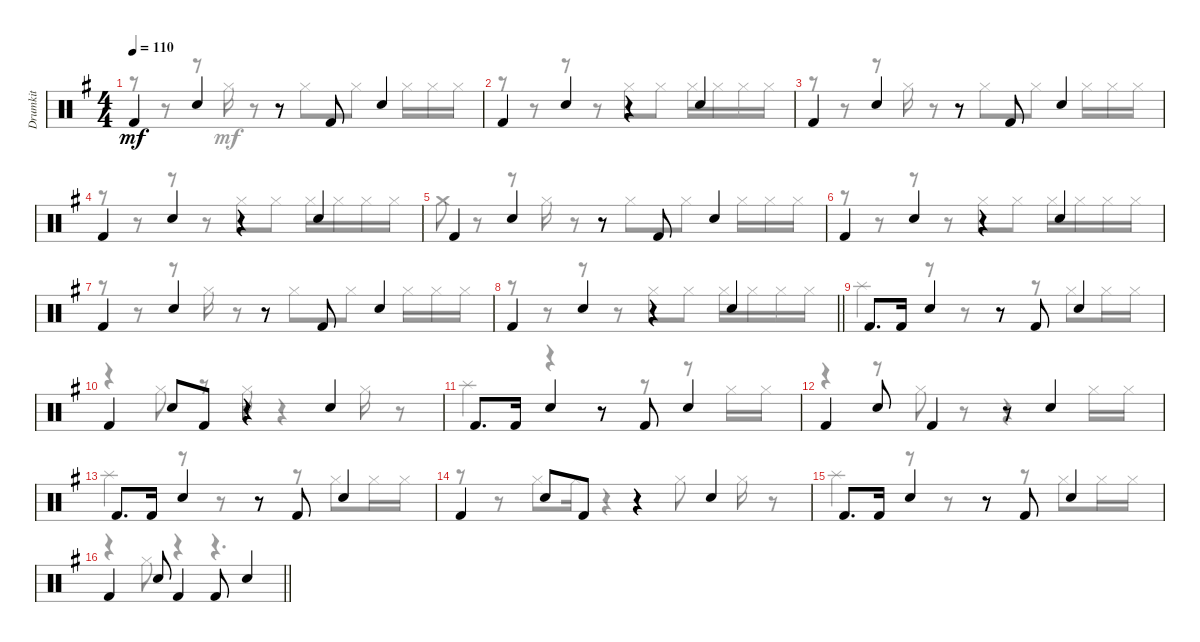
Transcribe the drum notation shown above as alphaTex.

\track ("Drumkit" "Drumkit") {instrument percussion}
\staff {score}
\articulation defaults
\voice
\ts (4 4)
\tempo 110
\clef neutral
\ks g "Kick (hit) 2".4{dy mf} "Snare (hit) 2".4
r.8 "Kick (hit) 2".8 "Snare (hit) 2".4 |
"Kick (hit) 2".4 "Snare (hit) 2".4 r.4 "Snare (hit) 2".4 |
"Kick (hit) 2".4 "Snare (hit) 2".4 r.8 "Kick (hit) 2".8 "Snare (hit) 2".4 |
"Kick (hit) 2".4 "Snare (hit) 2".4 r.4 "Snare (hit) 2".4 |
"Kick (hit) 2".4 "Snare (hit) 2".4 r.8 "Kick (hit) 2".8 "Snare (hit) 2".4 |
"Kick (hit) 2".4 "Snare (hit) 2".4 r.4 "Snare (hit) 2".4 |
"Kick (hit) 2".4 "Snare (hit) 2".4 r.8 "Kick (hit) 2".8 "Snare (hit) 2".4 |
\barLineRight lightlight "Kick (hit) 2".4 "Snare (hit) 2".4
r.4 "Snare (hit) 2".4 |
"Kick (hit) 2".8{d} "Kick (hit) 2".16 "Snare (hit) 2".4 r.8 "Kick (hit) 2".8 "Snare (hit) 2".4 |
"Kick (hit) 2".4 "Snare (hit) 2".8 "Kick (hit) 2".8 r.4 "Snare (hit) 2".4 |
"Kick (hit) 2".8{d} "Kick (hit) 2".16 "Snare (hit) 2".4 r.8 "Kick (hit) 2".8 "Snare (hit) 2".4 |
"Kick (hit) 2".4 "Snare (hit) 2".8 "Kick (hit) 2".4 r.8 "Snare (hit) 2".4 |
"Kick (hit) 2".8{d} "Kick (hit) 2".16 "Snare (hit) 2".4 r.8 "Kick (hit) 2".8 "Snare (hit) 2".4 |
"Kick (hit) 2".4 "Snare (hit) 2".8 "Kick (hit) 2".8 r.4 "Snare (hit) 2".4 |
"Kick (hit) 2".8{d} "Kick (hit) 2".16 "Snare (hit) 2".4 r.8 "Kick (hit) 2".8 "Snare (hit) 2".4 |
\barLineRight lightlight "Kick (hit) 2".4 "Snare (hit) 2".8 "Kick (hit) 2".4 "Kick (hit) 2".8 "Snare (hit) 2".4
\voice
\clef neutral
\ottava regular
\simile none
\ks g
r.8{dy mf} r.8 r.8 "Hi-Hat (closed)".16 r.8 "Hi-Hat (closed)".8 "Hi-Hat (closed)".8 "Hi-Hat (closed)".16 "Hi-Hat (closed)".16 "Hi-Hat (closed)".16 |
r.8 r.8 r.8 r.8 "Hi-Hat (closed)".8 "Hi-Hat (closed)".8 "Hi-Hat (closed)".16 "Hi-Hat (closed)".16 "Hi-Hat (closed)".16 "Hi-Hat (closed)".16 |
r.8 r.8 r.8 "Hi-Hat (closed)".16 r.8 "Hi-Hat (closed)".8 "Hi-Hat (closed)".8 "Hi-Hat (closed)".16 "Hi-Hat (closed)".16 "Hi-Hat (closed)".16 |
r.8 r.8 r.8 r.8 "Hi-Hat (closed)".8 "Hi-Hat (closed)".8 "Hi-Hat (closed)".16 "Hi-Hat (closed)".16 "Hi-Hat (closed)".16 "Hi-Hat (closed)".16 |
"Crash medium (hit)".8 r.8 r.8 "Hi-Hat (closed)".16 r.8 "Hi-Hat (closed)".8 "Hi-Hat (closed)".8 "Hi-Hat (closed)".16 "Hi-Hat (closed)".16 "Hi-Hat (closed)".16 |
r.8 r.8 r.8 r.8 "Hi-Hat (closed)".8 "Hi-Hat (closed)".8 "Hi-Hat (closed)".16 "Hi-Hat (closed)".16 "Hi-Hat (closed)".16 "Hi-Hat (closed)".16 |
r.8 r.8 r.8 "Hi-Hat (closed)".16 r.8 "Hi-Hat (closed)".8 "Hi-Hat (closed)".8 "Hi-Hat (closed)".16 "Hi-Hat (closed)".16 "Hi-Hat (closed)".16 |
\barLineRight lightlight
r.8 r.8 r.8 r.8 "Hi-Hat (closed)".8 "Hi-Hat (closed)".8 "Hi-Hat (closed)".16 "Hi-Hat (closed)".16 "Hi-Hat (closed)".16 "Hi-Hat (closed)".16 |
"Splash (hit)".4 r.8 r.8 r.8 r.8 "Hi-Hat (closed)".8 "Hi-Hat (closed)".16 "Hi-Hat (closed)".16 |
r.4 "Hi-Hat (closed)".8 r.8 "Hi-Hat (closed)".16 r.4 "Hi-Hat (closed)".16 r.8 |
"Splash (hit)".4 r.4 r.8 r.8 r.8 "Hi-Hat (closed)".16 "Hi-Hat (closed)".16 |
r.4 r.8 "Hi-Hat (closed)".8 r.8 r.4 "Hi-Hat (closed)".16 "Hi-Hat (closed)".16 |
"Splash (hit)".4 r.8 r.8 r.8 r.8 "Hi-Hat (closed)".8 "Hi-Hat (closed)".16 "Hi-Hat (closed)".16 |
r.8 r.8 "Hi-Hat (closed)".8 "Hi-Hat (closed)".16 r.4 "Hi-Hat (closed)".8 "Hi-Hat (closed)".16 r.8 |
"Splash (hit)".4 r.8 r.8 r.8 r.8 "Hi-Hat (closed)".8 "Hi-Hat (closed)".16 "Hi-Hat (closed)".16 |
\barLineRight lightlight
r.4 "Hi-Hat (closed)".8 r.4 r.4{d}
